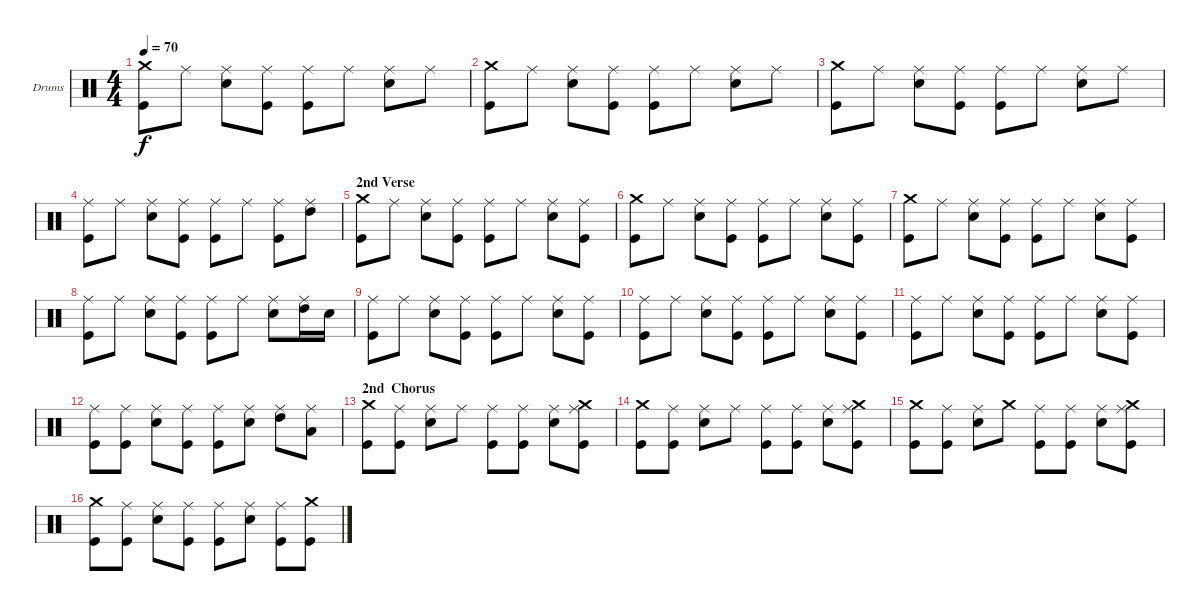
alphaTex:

\bracketExtendMode groupsimilarinstruments
\firstSystemTrackNameOrientation horizontal
\otherSystemsTrackNameOrientation horizontal
\track ("Drumkit" "Drums") {instrument percussion}
\staff {score}
\articulation defaults
\ts (4 4)
\tempo 70
\clef neutral
\scale
0.333333
\ks c
("Crash medium (hit)" "Kick (hit)").8{dy f} "Ride (middle)".8 ("Ride (middle)" "Snare (hit) 2").8 ("Ride (middle)" "Kick (hit)").8 ("Ride (middle)" "Kick (hit)").8 "Ride (middle)".8 ("Ride (middle)" "Snare (hit) 2").8 "Ride (middle)".8 |
\scale
0.333333 ("Crash medium (hit)" "Kick (hit)").8 "Ride (middle)".8 ("Ride (middle)" "Snare (hit) 2").8 ("Ride (middle)" "Kick (hit)").8 ("Ride (middle)" "Kick (hit)").8 "Ride (middle)".8 ("Ride (middle)" "Snare (hit) 2").8 "Ride (middle)".8 |
\scale
0.333333 ("Crash medium (hit)" "Kick (hit)").8 "Ride (middle)".8 ("Ride (middle)" "Snare (hit) 2").8 ("Ride (middle)" "Kick (hit)").8 ("Ride (middle)" "Kick (hit)").8 "Ride (middle)".8 ("Ride (middle)" "Snare (hit) 2").8 "Ride (middle)".8 |
\scale
0.333333 ("Ride (middle)" "Kick (hit)").8 "Ride (middle)".8 ("Ride (middle)" "Snare (hit) 2").8 ("Ride (middle)" "Kick (hit)").8 ("Ride (middle)" "Kick (hit)").8 "Ride (middle)".8 ("Ride (middle)" "Kick (hit)").8 ("Ride (middle)" "High Tom (hit)").8 |
\section ("" "2nd Verse")
\scale
0.333333 ("Crash medium (hit)" "Kick (hit)").8 "Ride (middle)".8 ("Ride (middle)" "Snare (hit) 2").8 ("Ride (middle)" "Kick (hit)").8 ("Ride (middle)" "Kick (hit)").8 "Ride (middle)".8 ("Ride (middle)" "Snare (hit) 2").8 ("Ride (middle)" "Kick (hit)").8 |
\scale
0.333333 ("Crash medium (hit)" "Kick (hit)").8 "Ride (middle)".8 ("Ride (middle)" "Snare (hit) 2").8 ("Ride (middle)" "Kick (hit)").8 ("Ride (middle)" "Kick (hit)").8 "Ride (middle)".8 ("Ride (middle)" "Snare (hit) 2").8 ("Ride (middle)" "Kick (hit)").8 |
\scale
0.333333 ("Crash medium (hit)" "Kick (hit)").8 "Ride (middle)".8 ("Ride (middle)" "Snare (hit) 2").8 ("Ride (middle)" "Kick (hit)").8 ("Ride (middle)" "Kick (hit)").8 "Ride (middle)".8 ("Ride (middle)" "Snare (hit) 2").8 ("Ride (middle)" "Kick (hit)").8 |
\scale
0.333333 ("Ride (middle)" "Kick (hit)").8 "Ride (middle)".8 ("Ride (middle)" "Snare (hit) 2").8 ("Ride (middle)" "Kick (hit)").8 ("Ride (middle)" "Kick (hit)").8 "Ride (middle)".8 ("Ride (middle)" "Snare (hit) 2").8 ("Ride (middle)" "High Tom (hit)").16 "Snare (hit) 2".16 |
\scale
0.333333 ("Ride (middle)" "Kick (hit)").8 "Ride (middle)".8 ("Ride (middle)" "Snare (hit) 2").8 ("Ride (middle)" "Kick (hit)").8 ("Ride (middle)" "Kick (hit)").8 "Ride (middle)".8 ("Ride (middle)" "Snare (hit) 2").8 ("Ride (middle)" "Kick (hit)").8 |
\scale
0.333333 ("Ride (middle)" "Kick (hit)").8 "Ride (middle)".8 ("Ride (middle)" "Snare (hit) 2").8 ("Ride (middle)" "Kick (hit)").8 ("Ride (middle)" "Kick (hit)").8 "Ride (middle)".8 ("Ride (middle)" "Snare (hit) 2").8 ("Ride (middle)" "Kick (hit)").8 |
\scale
0.333333 ("Ride (middle)" "Kick (hit)").8 "Ride (middle)".8 ("Ride (middle)" "Snare (hit) 2").8 ("Ride (middle)" "Kick (hit)").8 ("Ride (middle)" "Kick (hit)").8 "Ride (middle)".8 ("Ride (middle)" "Snare (hit) 2").8 ("Ride (middle)" "Kick (hit)").8 |
\scale
0.333333 ("Ride (middle)" "Kick (hit)").8 ("Ride (middle)" "Kick (hit)").8 ("Ride (middle)" "Snare (hit) 2").8 ("Ride (middle)" "Kick (hit)").8 ("Ride (middle)" "Kick (hit)").8 ("Ride (middle)" "Snare (hit) 2").8 ("Ride (middle)" "High Tom (hit)").8 ("Ride (middle)" "Low Tom (hit)").8 |
\section ("" "2nd  Chorus")
\scale
0.333333 ("Crash medium (hit)" "Kick (hit)").8 ("Ride (middle)" "Kick (hit)").8 ("Ride (middle)" "Snare (hit) 2").8 "Ride (middle)".8 ("Ride (middle)" "Kick (hit)").8 ("Ride (middle)" "Kick (hit)").8 ("Ride (middle)" "Snare (hit) 2").8 ("Crash medium (hit)" "Ride (middle)" "Kick (hit)").8 |
\scale
0.333333 ("Crash medium (hit)" "Kick (hit)").8 ("Ride (middle)" "Kick (hit)").8 ("Ride (middle)" "Snare (hit) 2").8 "Ride (middle)".8 ("Ride (middle)" "Kick (hit)").8 ("Ride (middle)" "Kick (hit)").8 ("Ride (middle)" "Snare (hit) 2").8 ("Crash medium (hit)" "Ride (middle)" "Kick (hit)").8 |
\scale
0.333333 ("Crash medium (hit)" "Kick (hit)").8 ("Ride (middle)" "Kick (hit)").8 ("Ride (middle)" "Snare (hit) 2").8 "Crash medium (hit)".8 ("Ride (middle)" "Kick (hit)").8 ("Ride (middle)" "Kick (hit)").8 ("Ride (middle)" "Snare (hit) 2").8 ("Crash medium (hit)" "Ride (middle)" "Kick (hit)").8 |
\scale
0.333333 ("Crash medium (hit)" "Kick (hit)").8 ("Ride (middle)" "Kick (hit)").8 ("Ride (middle)" "Snare (hit) 2").8 ("Ride (middle)" "Kick (hit)").8 ("Ride (middle)" "Kick (hit)").8 ("Ride (middle)" "Snare (hit) 2").8 ("Ride (middle)" "Kick (hit)").8 ("Crash medium (hit)" "Kick (hit)").8
